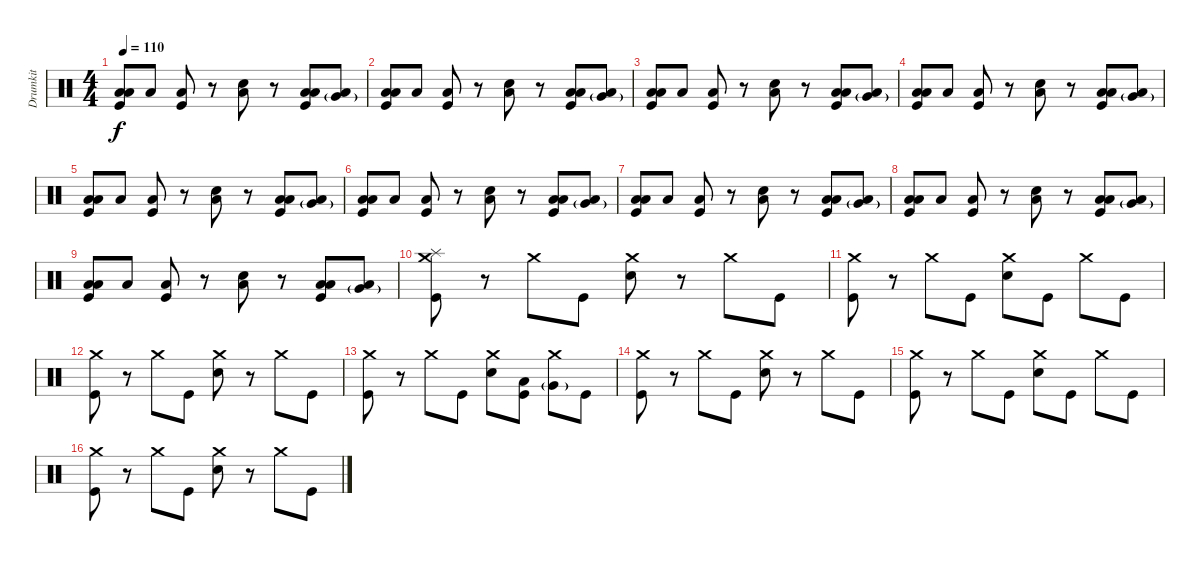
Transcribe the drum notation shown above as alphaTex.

\track ("Drumkit" "Drumkit") {instrument percussion}
\staff {score}
\articulation defaults
\ts (4 4)
\tempo 110
\clef neutral
\ks c
("Low Tom (hit)" "Low Floor Tom (hit)" "Kick (hit)").8{dy f} "Low Floor Tom (hit)".8 ("Low Tom (hit)" "Kick (hit)").8 r.8 ("Low Floor Tom (hit)" "Snare (hit) 2").8 r.8 ("Low Tom (hit)" "Low Floor Tom (hit)" "Kick (hit)").8 ("Very Low Tom (hit)"{g} "Low Floor Tom (hit)").8 |
("Low Tom (hit)" "Low Floor Tom (hit)" "Kick (hit)").8 "Low Floor Tom (hit)".8 ("Low Tom (hit)" "Kick (hit)").8 r.8 ("Low Floor Tom (hit)" "Snare (hit) 2").8 r.8 ("Low Tom (hit)" "Low Floor Tom (hit)" "Kick (hit)").8 ("Very Low Tom (hit)"{g} "Low Floor Tom (hit)").8 |
("Low Tom (hit)" "Low Floor Tom (hit)" "Kick (hit)").8 "Low Floor Tom (hit)".8 ("Low Tom (hit)" "Kick (hit)").8 r.8 ("Low Floor Tom (hit)" "Snare (hit) 2").8 r.8 ("Low Tom (hit)" "Low Floor Tom (hit)" "Kick (hit)").8 ("Very Low Tom (hit)"{g} "Low Floor Tom (hit)").8 |
("Low Tom (hit)" "Low Floor Tom (hit)" "Kick (hit)").8 "Low Floor Tom (hit)".8 ("Low Tom (hit)" "Kick (hit)").8 r.8 ("Low Floor Tom (hit)" "Snare (hit) 2").8 r.8 ("Low Tom (hit)" "Low Floor Tom (hit)" "Kick (hit)").8 ("Very Low Tom (hit)"{g} "Low Floor Tom (hit)").8 |
("Low Tom (hit)" "Low Floor Tom (hit)" "Kick (hit)").8 "Low Floor Tom (hit)".8 ("Low Tom (hit)" "Kick (hit)").8 r.8 ("Low Floor Tom (hit)" "Snare (hit) 2").8 r.8 ("Low Tom (hit)" "Low Floor Tom (hit)" "Kick (hit)").8 ("Very Low Tom (hit)"{g} "Low Floor Tom (hit)").8 |
("Low Tom (hit)" "Low Floor Tom (hit)" "Kick (hit)").8 "Low Floor Tom (hit)".8 ("Low Tom (hit)" "Kick (hit)").8 r.8 ("Low Floor Tom (hit)" "Snare (hit) 2").8 r.8 ("Low Tom (hit)" "Low Floor Tom (hit)" "Kick (hit)").8 ("Very Low Tom (hit)"{g} "Low Floor Tom (hit)").8 |
("Low Tom (hit)" "Low Floor Tom (hit)" "Kick (hit)").8 "Low Floor Tom (hit)".8 ("Low Tom (hit)" "Kick (hit)").8 r.8 ("Low Floor Tom (hit)" "Snare (hit) 2").8 r.8 ("Low Tom (hit)" "Low Floor Tom (hit)" "Kick (hit)").8 ("Very Low Tom (hit)"{g} "Low Floor Tom (hit)").8 |
("Low Tom (hit)" "Low Floor Tom (hit)" "Kick (hit)").8 "Low Floor Tom (hit)".8 ("Low Tom (hit)" "Kick (hit)").8 r.8 ("Low Floor Tom (hit)" "Snare (hit) 2").8 r.8 ("Low Tom (hit)" "Low Floor Tom (hit)" "Kick (hit)").8 ("Very Low Tom (hit)"{g} "Low Floor Tom (hit)").8 |
("Low Tom (hit)" "Low Floor Tom (hit)" "Kick (hit)").8 "Low Floor Tom (hit)".8 ("Low Tom (hit)" "Kick (hit)").8 r.8 ("Low Floor Tom (hit)" "Snare (hit) 2").8 r.8 ("Low Tom (hit)" "Low Floor Tom (hit)" "Kick (hit)").8 ("Very Low Tom (hit)"{g} "Low Floor Tom (hit)").8 |
("Crash medium (hit)" "Splash (hit)" "Kick (hit)").8 r.8 "Crash medium (hit)".8 "Kick (hit)".8 ("Crash medium (hit)" "Snare (hit) 2").8 r.8 "Crash medium (hit)".8 "Kick (hit)".8 |
("Crash medium (hit)" "Kick (hit)").8 r.8 "Crash medium (hit)".8 "Kick (hit)".8 ("Crash medium (hit)" "Snare (hit) 2").8 "Kick (hit)".8 "Crash medium (hit)".8 "Kick (hit)".8 |
("Crash medium (hit)" "Kick (hit)").8 r.8 "Crash medium (hit)".8 "Kick (hit)".8 ("Crash medium (hit)" "Snare (hit) 2").8 r.8 "Crash medium (hit)".8 "Kick (hit)".8 |
("Crash medium (hit)" "Kick (hit)").8 r.8 "Crash medium (hit)".8 "Kick (hit)".8 ("Crash medium (hit)" "Snare (hit) 2").8 ("Low Tom (hit)" "Kick (hit)").8 ("Crash medium (hit)" "Very Low Tom (hit)"{g}).8 "Kick (hit)".8 |
("Crash medium (hit)" "Kick (hit)").8 r.8 "Crash medium (hit)".8 "Kick (hit)".8 ("Crash medium (hit)" "Snare (hit) 2").8 r.8 "Crash medium (hit)".8 "Kick (hit)".8 |
("Crash medium (hit)" "Kick (hit)").8 r.8 "Crash medium (hit)".8 "Kick (hit)".8 ("Crash medium (hit)" "Snare (hit) 2").8 "Kick (hit)".8 "Crash medium (hit)".8 "Kick (hit)".8 |
("Crash medium (hit)" "Kick (hit)").8 r.8 "Crash medium (hit)".8 "Kick (hit)".8 ("Crash medium (hit)" "Snare (hit) 2").8 r.8 "Crash medium (hit)".8 "Kick (hit)".8
